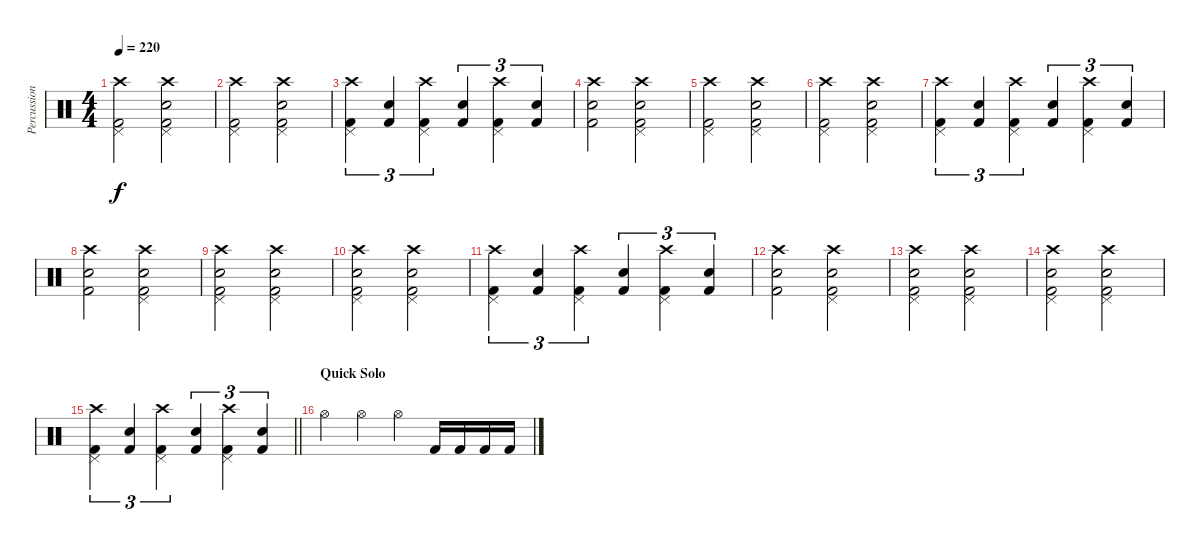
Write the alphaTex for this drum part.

\track ("Percussion" "Percussion") {instrument percussion}
\staff {score}
\articulation defaults
\ts (4 4)
\tempo 220
\clef neutral
\ks c
("Crash high (hit)" "Pedal Hi-Hat (hit)" "Kick (hit) 2").2{dy f} ("Crash high (hit)" "Snare (hit) 2" "Pedal Hi-Hat (hit)" "Kick (hit) 2").2 |
("Crash high (hit)" "Pedal Hi-Hat (hit)" "Kick (hit) 2").2 ("Crash high (hit)" "Snare (hit) 2" "Pedal Hi-Hat (hit)" "Kick (hit) 2").2 |
("Crash high (hit)" "Pedal Hi-Hat (hit)" "Kick (hit) 2").4{tu (3 2)} ("Snare (hit) 2" "Kick (hit) 2").4{tu (3 2)} ("Crash high (hit)" "Pedal Hi-Hat (hit)" "Kick (hit) 2").4{tu (3 2)} ("Snare (hit) 2" "Kick (hit) 2").4{tu (3 2)} ("Crash high (hit)" "Pedal Hi-Hat (hit)" "Kick (hit) 2").4{tu (3 2)} ("Snare (hit) 2" "Kick (hit) 2").4{tu (3 2)} |
("Crash high (hit)" "Snare (hit) 2" "Kick (hit) 2").2 ("Crash high (hit)" "Snare (hit) 2" "Pedal Hi-Hat (hit)" "Kick (hit) 2").2 |
("Crash high (hit)" "Pedal Hi-Hat (hit)" "Kick (hit) 2").2 ("Crash high (hit)" "Snare (hit) 2" "Pedal Hi-Hat (hit)" "Kick (hit) 2").2 |
("Crash high (hit)" "Pedal Hi-Hat (hit)" "Kick (hit) 2").2 ("Crash high (hit)" "Snare (hit) 2" "Pedal Hi-Hat (hit)" "Kick (hit) 2").2 |
("Crash high (hit)" "Pedal Hi-Hat (hit)" "Kick (hit) 2").4{tu (3 2)} ("Snare (hit) 2" "Kick (hit) 2").4{tu (3 2)} ("Crash high (hit)" "Pedal Hi-Hat (hit)" "Kick (hit) 2").4{tu (3 2)} ("Snare (hit) 2" "Kick (hit) 2").4{tu (3 2)} ("Crash high (hit)" "Pedal Hi-Hat (hit)" "Kick (hit) 2").4{tu (3 2)} ("Snare (hit) 2" "Kick (hit) 2").4{tu (3 2)} |
("Crash high (hit)" "Snare (hit) 2" "Kick (hit) 2").2 ("Crash high (hit)" "Snare (hit) 2" "Pedal Hi-Hat (hit)" "Kick (hit) 2").2 |
("Crash high (hit)" "Snare (hit) 2" "Pedal Hi-Hat (hit)" "Kick (hit) 2").2 ("Crash high (hit)" "Snare (hit) 2" "Pedal Hi-Hat (hit)" "Kick (hit) 2").2 |
("Crash high (hit)" "Snare (hit) 2" "Pedal Hi-Hat (hit)" "Kick (hit) 2").2 ("Crash high (hit)" "Snare (hit) 2" "Pedal Hi-Hat (hit)" "Kick (hit) 2").2 |
("Crash high (hit)" "Pedal Hi-Hat (hit)" "Kick (hit) 2").4{tu (3 2)} ("Snare (hit) 2" "Kick (hit) 2").4{tu (3 2)} ("Crash high (hit)" "Pedal Hi-Hat (hit)" "Kick (hit) 2").4{tu (3 2)} ("Snare (hit) 2" "Kick (hit) 2").4{tu (3 2)} ("Crash high (hit)" "Pedal Hi-Hat (hit)" "Kick (hit) 2").4{tu (3 2)} ("Snare (hit) 2" "Kick (hit) 2").4{tu (3 2)} |
("Crash high (hit)" "Snare (hit) 2" "Kick (hit) 2").2 ("Crash high (hit)" "Snare (hit) 2" "Pedal Hi-Hat (hit)" "Kick (hit) 2").2 |
("Crash high (hit)" "Snare (hit) 2" "Pedal Hi-Hat (hit)" "Kick (hit) 2").2 ("Crash high (hit)" "Snare (hit) 2" "Pedal Hi-Hat (hit)" "Kick (hit) 2").2 |
("Crash high (hit)" "Snare (hit) 2" "Pedal Hi-Hat (hit)" "Kick (hit) 2").2 ("Crash high (hit)" "Snare (hit) 2" "Pedal Hi-Hat (hit)" "Kick (hit) 2").2 |
\barLineRight lightlight
("Crash high (hit)" "Pedal Hi-Hat (hit)" "Kick (hit) 2").4{tu (3 2)} ("Snare (hit) 2" "Kick (hit) 2").4{tu (3 2)} ("Crash high (hit)" "Pedal Hi-Hat (hit)" "Kick (hit) 2").4{tu (3 2)} ("Snare (hit) 2" "Kick (hit) 2").4{tu (3 2)} ("Crash high (hit)" "Pedal Hi-Hat (hit)" "Kick (hit) 2").4{tu (3 2)} ("Snare (hit) 2" "Kick (hit) 2").4{tu (3 2)} |
\section ("" "Quick Solo")
"Hi-Hat (open)".4 "Hi-Hat (open)".4 "Hi-Hat (open)".4 "Kick (hit) 2".16 "Kick (hit) 2".16 "Kick (hit) 2".16 "Kick (hit) 2".16
